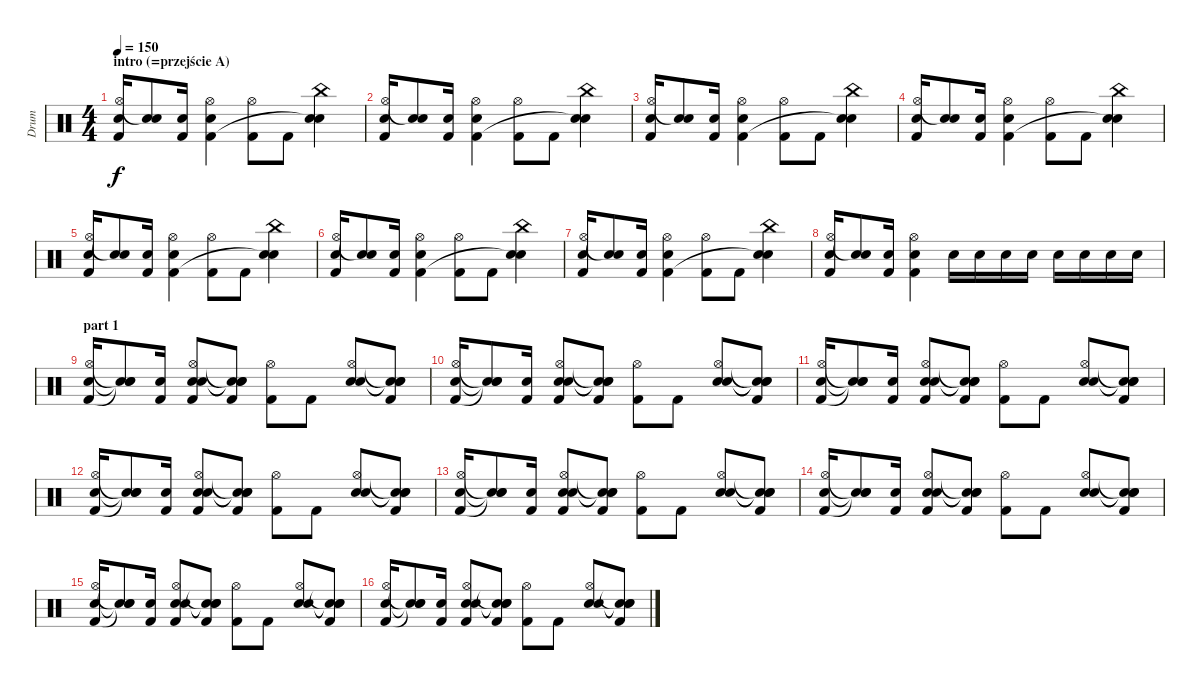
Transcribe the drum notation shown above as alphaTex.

\track ("Drum" "Drum") {instrument percussion}
\staff {score}
\articulation defaults
\ts (4 4)
\section ("" "intro (=przejście A)")
\tempo 150
\clef neutral
\ks c
("Snare (hit) 2" "Hi-Hat (open)" "Kick (hit) 2").16{dy f} ("Electric Snare (hit)" "Snare (hit)"{t}).8 ("Snare (hit) 2" "Kick (hit) 2").16 ("Electric Snare (hit)" "Hi-Hat (open)" "Kick (hit) 2").4 ("Hi-Hat (open)" "Kick (hit) 2").8 "Kick (hit) 2".8 ("China (hit)" "Electric Snare (hit)" "Snare (hit)"{t}).4 |
("Snare (hit) 2" "Hi-Hat (open)" "Kick (hit) 2").16 ("Electric Snare (hit)" "Snare (hit)"{t}).8 ("Snare (hit) 2" "Kick (hit) 2").16 ("Electric Snare (hit)" "Hi-Hat (open)" "Kick (hit) 2").4 ("Hi-Hat (open)" "Kick (hit) 2").8 "Kick (hit) 2".8 ("China (hit)" "Electric Snare (hit)" "Snare (hit)"{t}).4 |
("Snare (hit) 2" "Hi-Hat (open)" "Kick (hit) 2").16 ("Electric Snare (hit)" "Snare (hit)"{t}).8 ("Snare (hit) 2" "Kick (hit) 2").16 ("Electric Snare (hit)" "Hi-Hat (open)" "Kick (hit) 2").4 ("Hi-Hat (open)" "Kick (hit) 2").8 "Kick (hit) 2".8 ("China (hit)" "Electric Snare (hit)" "Snare (hit)"{t}).4 |
("Snare (hit) 2" "Hi-Hat (open)" "Kick (hit) 2").16 ("Electric Snare (hit)" "Snare (hit)"{t}).8 ("Snare (hit) 2" "Kick (hit) 2").16 ("Electric Snare (hit)" "Hi-Hat (open)" "Kick (hit) 2").4 ("Hi-Hat (open)" "Kick (hit) 2").8 "Kick (hit) 2".8 ("China (hit)" "Electric Snare (hit)" "Snare (hit)"{t}).4 |
("Snare (hit) 2" "Hi-Hat (open)" "Kick (hit) 2").16 ("Electric Snare (hit)" "Snare (hit)"{t}).8 ("Snare (hit) 2" "Kick (hit) 2").16 ("Electric Snare (hit)" "Hi-Hat (open)" "Kick (hit) 2").4 ("Hi-Hat (open)" "Kick (hit) 2").8 "Kick (hit) 2".8 ("China (hit)" "Electric Snare (hit)" "Snare (hit)"{t}).4 |
("Snare (hit) 2" "Hi-Hat (open)" "Kick (hit) 2").16 ("Electric Snare (hit)" "Snare (hit)"{t}).8 ("Snare (hit) 2" "Kick (hit) 2").16 ("Electric Snare (hit)" "Hi-Hat (open)" "Kick (hit) 2").4 ("Hi-Hat (open)" "Kick (hit) 2").8 "Kick (hit) 2".8 ("China (hit)" "Electric Snare (hit)" "Snare (hit)"{t}).4 |
("Snare (hit) 2" "Hi-Hat (open)" "Kick (hit) 2").16 ("Electric Snare (hit)" "Snare (hit)"{t}).8 ("Snare (hit) 2" "Kick (hit) 2").16 ("Electric Snare (hit)" "Hi-Hat (open)" "Kick (hit) 2").4 ("Hi-Hat (open)" "Kick (hit) 2").8 "Kick (hit) 2".8 ("China (hit)" "Electric Snare (hit)" "Snare (hit)"{t}).4 |
("Snare (hit) 2" "Hi-Hat (open)" "Kick (hit) 2").16 ("Electric Snare (hit)" "Snare (hit)"{t}).8 ("Snare (hit) 2" "Kick (hit) 2").16 ("Electric Snare (hit)" "Hi-Hat (open)" "Kick (hit) 2").4 "Electric Snare (hit)".16 "Snare (hit) 2".16 "Electric Snare (hit)".16 "Snare (hit) 2".16 "Electric Snare (hit)".16 "Snare (hit) 2".16 "Electric Snare (hit)".16 "Snare (hit) 2".16 |
\section ("" "part 1")
("Snare (hit) 2" "Hi-Hat (open)" "Kick (hit) 2").16 ("Electric Snare (hit)"{t} "Snare (hit)"{t} "Snare (hit)"{t}).8 ("Snare (hit) 2" "Kick (hit) 2").16 ("Electric Snare (hit)" "Snare (hit) 2" "Hi-Hat (open)" "Kick (hit) 2").8 ("Snare (hit)"{t} "Snare (hit)"{t} "Snare (hit)"{t} "Kick (hit) 2").8 ("Hi-Hat (open)" "Kick (hit) 2").8 "Kick (hit) 2".8 ("Electric Snare (hit)" "Snare (hit) 2" "Hi-Hat (open)").8 ("Snare (hit)"{t} "Snare (hit)"{t} "Snare (hit)"{t} "Kick (hit) 2").8 |
("Snare (hit) 2" "Hi-Hat (open)" "Kick (hit) 2").16 ("Electric Snare (hit)"{t} "Snare (hit)"{t} "Snare (hit)"{t}).8 ("Snare (hit) 2" "Kick (hit) 2").16 ("Electric Snare (hit)" "Snare (hit) 2" "Hi-Hat (open)" "Kick (hit) 2").8 ("Snare (hit)"{t} "Snare (hit)"{t} "Snare (hit)"{t} "Kick (hit) 2").8 ("Hi-Hat (open)" "Kick (hit) 2").8 "Kick (hit) 2".8 ("Electric Snare (hit)" "Snare (hit) 2" "Hi-Hat (open)").8 ("Snare (hit)"{t} "Snare (hit)"{t} "Snare (hit)"{t} "Kick (hit) 2").8 |
("Snare (hit) 2" "Hi-Hat (open)" "Kick (hit) 2").16 ("Electric Snare (hit)"{t} "Snare (hit)"{t} "Snare (hit)"{t}).8 ("Snare (hit) 2" "Kick (hit) 2").16 ("Electric Snare (hit)" "Snare (hit) 2" "Hi-Hat (open)" "Kick (hit) 2").8 ("Snare (hit)"{t} "Snare (hit)"{t} "Snare (hit)"{t} "Kick (hit) 2").8 ("Hi-Hat (open)" "Kick (hit) 2").8 "Kick (hit) 2".8 ("Electric Snare (hit)" "Snare (hit) 2" "Hi-Hat (open)").8 ("Snare (hit)"{t} "Snare (hit)"{t} "Snare (hit)"{t} "Kick (hit) 2").8 |
("Snare (hit) 2" "Hi-Hat (open)" "Kick (hit) 2").16 ("Electric Snare (hit)"{t} "Snare (hit)"{t} "Snare (hit)"{t}).8 ("Snare (hit) 2" "Kick (hit) 2").16 ("Electric Snare (hit)" "Snare (hit) 2" "Hi-Hat (open)" "Kick (hit) 2").8 ("Snare (hit)"{t} "Snare (hit)"{t} "Snare (hit)"{t} "Kick (hit) 2").8 ("Hi-Hat (open)" "Kick (hit) 2").8 "Kick (hit) 2".8 ("Electric Snare (hit)" "Snare (hit) 2" "Hi-Hat (open)").8 ("Snare (hit)"{t} "Snare (hit)"{t} "Snare (hit)"{t} "Kick (hit) 2").8 |
("Snare (hit) 2" "Hi-Hat (open)" "Kick (hit) 2").16 ("Electric Snare (hit)"{t} "Snare (hit)"{t} "Snare (hit)"{t}).8 ("Snare (hit) 2" "Kick (hit) 2").16 ("Electric Snare (hit)" "Snare (hit) 2" "Hi-Hat (open)" "Kick (hit) 2").8 ("Snare (hit)"{t} "Snare (hit)"{t} "Snare (hit)"{t} "Kick (hit) 2").8 ("Hi-Hat (open)" "Kick (hit) 2").8 "Kick (hit) 2".8 ("Electric Snare (hit)" "Snare (hit) 2" "Hi-Hat (open)").8 ("Snare (hit)"{t} "Snare (hit)"{t} "Snare (hit)"{t} "Kick (hit) 2").8 |
("Snare (hit) 2" "Hi-Hat (open)" "Kick (hit) 2").16 ("Electric Snare (hit)"{t} "Snare (hit)"{t} "Snare (hit)"{t}).8 ("Snare (hit) 2" "Kick (hit) 2").16 ("Electric Snare (hit)" "Snare (hit) 2" "Hi-Hat (open)" "Kick (hit) 2").8 ("Snare (hit)"{t} "Snare (hit)"{t} "Snare (hit)"{t} "Kick (hit) 2").8 ("Hi-Hat (open)" "Kick (hit) 2").8 "Kick (hit) 2".8 ("Electric Snare (hit)" "Snare (hit) 2" "Hi-Hat (open)").8 ("Snare (hit)"{t} "Snare (hit)"{t} "Snare (hit)"{t} "Kick (hit) 2").8 |
("Snare (hit) 2" "Hi-Hat (open)" "Kick (hit) 2").16 ("Electric Snare (hit)"{t} "Snare (hit)"{t} "Snare (hit)"{t}).8 ("Snare (hit) 2" "Kick (hit) 2").16 ("Electric Snare (hit)" "Snare (hit) 2" "Hi-Hat (open)" "Kick (hit) 2").8 ("Snare (hit)"{t} "Snare (hit)"{t} "Snare (hit)"{t} "Kick (hit) 2").8 ("Hi-Hat (open)" "Kick (hit) 2").8 "Kick (hit) 2".8 ("Electric Snare (hit)" "Snare (hit) 2" "Hi-Hat (open)").8 ("Snare (hit)"{t} "Snare (hit)"{t} "Snare (hit)"{t} "Kick (hit) 2").8 |
("Snare (hit) 2" "Hi-Hat (open)" "Kick (hit) 2").16 ("Electric Snare (hit)"{t} "Snare (hit)"{t} "Snare (hit)"{t}).8 ("Snare (hit) 2" "Kick (hit) 2").16 ("Electric Snare (hit)" "Snare (hit) 2" "Hi-Hat (open)" "Kick (hit) 2").8 ("Snare (hit)"{t} "Snare (hit)"{t} "Snare (hit)"{t} "Kick (hit) 2").8 ("Hi-Hat (open)" "Kick (hit) 2").8 "Kick (hit) 2".8 ("Electric Snare (hit)" "Snare (hit) 2" "Hi-Hat (open)").8 ("Snare (hit)"{t} "Snare (hit)"{t} "Snare (hit)"{t} "Kick (hit) 2").8
